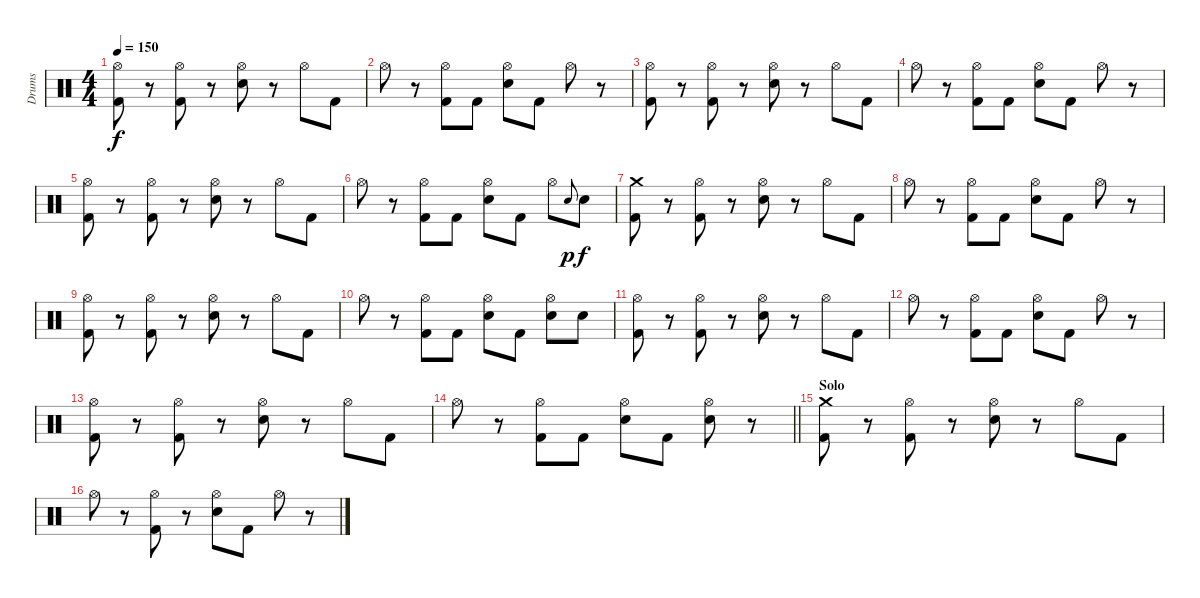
\track ("Drums" "Drums") {instrument percussion}
\staff {score}
\articulation defaults
\ts (4 4)
\tempo 150
\clef neutral
\ks c
("Hi-Hat (open)" "Kick (hit) 2").8{dy f} r.8 ("Hi-Hat (open)" "Kick (hit) 2").8 r.8 ("Hi-Hat (open)" "Snare (hit) 2").8 r.8 "Hi-Hat (open)".8 "Kick (hit) 2".8 |
"Hi-Hat (open)".8 r.8 ("Hi-Hat (open)" "Kick (hit) 2").8 "Kick (hit) 2".8 ("Hi-Hat (open)" "Snare (hit) 2").8 "Kick (hit) 2".8 "Hi-Hat (open)".8 r.8 |
("Hi-Hat (open)" "Kick (hit) 2").8 r.8 ("Hi-Hat (open)" "Kick (hit) 2").8 r.8 ("Hi-Hat (open)" "Snare (hit) 2").8 r.8 "Hi-Hat (open)".8 "Kick (hit) 2".8 |
"Hi-Hat (open)".8 r.8 ("Hi-Hat (open)" "Kick (hit) 2").8 "Kick (hit) 2".8 ("Hi-Hat (open)" "Snare (hit) 2").8 "Kick (hit) 2".8 "Hi-Hat (open)".8 r.8 |
("Hi-Hat (open)" "Kick (hit) 2").8 r.8 ("Hi-Hat (open)" "Kick (hit) 2").8 r.8 ("Hi-Hat (open)" "Snare (hit) 2").8 r.8 "Hi-Hat (open)".8 "Kick (hit) 2".8 |
"Hi-Hat (open)".8 r.8 ("Hi-Hat (open)" "Kick (hit) 2").8 "Kick (hit) 2".8 ("Hi-Hat (open)" "Snare (hit) 2").8 "Kick (hit) 2".8 "Hi-Hat (open)".8 "Snare (hit)".8{gr onbeat dy p} "Snare (hit) 2".8{dy f} |
("Crash medium (hit)" "Kick (hit) 2").8 r.8 ("Hi-Hat (open)" "Kick (hit) 2").8 r.8 ("Hi-Hat (open)" "Snare (hit) 2").8 r.8 "Hi-Hat (open)".8 "Kick (hit) 2".8 |
"Hi-Hat (open)".8 r.8 ("Hi-Hat (open)" "Kick (hit) 2").8 "Kick (hit) 2".8 ("Hi-Hat (open)" "Snare (hit) 2").8 "Kick (hit) 2".8 "Hi-Hat (open)".8 r.8 |
("Hi-Hat (open)" "Kick (hit) 2").8 r.8 ("Hi-Hat (open)" "Kick (hit) 2").8 r.8 ("Hi-Hat (open)" "Snare (hit) 2").8 r.8 "Hi-Hat (open)".8 "Kick (hit) 2".8 |
"Hi-Hat (open)".8 r.8 ("Hi-Hat (open)" "Kick (hit) 2").8 "Kick (hit) 2".8 ("Hi-Hat (open)" "Snare (hit) 2").8 "Kick (hit) 2".8 ("Hi-Hat (open)" "Snare (hit) 2").8 "Snare (hit) 2".8 |
("Hi-Hat (open)" "Kick (hit) 2").8 r.8 ("Hi-Hat (open)" "Kick (hit) 2").8 r.8 ("Hi-Hat (open)" "Snare (hit) 2").8 r.8 "Hi-Hat (open)".8 "Kick (hit) 2".8 |
"Hi-Hat (open)".8 r.8 ("Hi-Hat (open)" "Kick (hit) 2").8 "Kick (hit) 2".8 ("Hi-Hat (open)" "Snare (hit) 2").8 "Kick (hit) 2".8 "Hi-Hat (open)".8 r.8 |
("Hi-Hat (open)" "Kick (hit) 2").8 r.8 ("Hi-Hat (open)" "Kick (hit) 2").8 r.8 ("Hi-Hat (open)" "Snare (hit) 2").8 r.8 "Hi-Hat (open)".8 "Kick (hit) 2".8 |
\barLineRight lightlight "Hi-Hat (open)".8
r.8 ("Hi-Hat (open)" "Kick (hit) 2").8 "Kick (hit) 2".8 ("Hi-Hat (open)" "Snare (hit) 2").8 "Kick (hit) 2".8 ("Hi-Hat (open)" "Snare (hit) 2").8 r.8 |
\section ("" "Solo")
("Crash medium (hit)" "Kick (hit) 2").8 r.8 ("Hi-Hat (open)" "Kick (hit) 2").8 r.8 ("Hi-Hat (open)" "Snare (hit) 2").8 r.8 "Hi-Hat (open)".8 "Kick (hit) 2".8 |
"Hi-Hat (open)".8 r.8 ("Hi-Hat (open)" "Kick (hit) 2").8 r.8 ("Hi-Hat (open)" "Snare (hit) 2").8 "Kick (hit) 2".8 "Hi-Hat (open)".8 r.8
